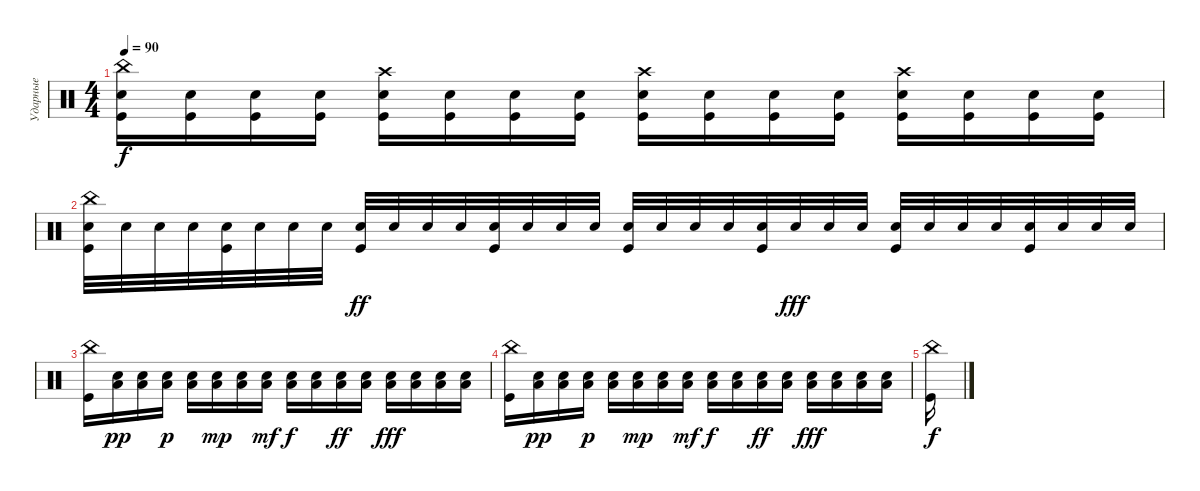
\track ("Ударные" "Ударные") {instrument percussion}
\staff {score}
\articulation defaults
\ts (4 4)
\tempo 90
\clef neutral
\ks c
("China (hit)" "Snare (hit) 2" "Kick (hit)").16{dy f} ("Snare (hit) 2" "Kick (hit)").16 ("Snare (hit) 2" "Kick (hit)").16 ("Snare (hit) 2" "Kick (hit)").16 ("Crash high (hit)" "Snare (hit) 2" "Kick (hit)").16 ("Snare (hit) 2" "Kick (hit)").16 ("Snare (hit) 2" "Kick (hit)").16 ("Snare (hit) 2" "Kick (hit)").16 ("Crash high (hit)" "Snare (hit) 2" "Kick (hit)").16 ("Snare (hit) 2" "Kick (hit)").16 ("Snare (hit) 2" "Kick (hit)").16 ("Snare (hit) 2" "Kick (hit)").16 ("Crash high (hit)" "Snare (hit) 2" "Kick (hit)").16 ("Snare (hit) 2" "Kick (hit)").16 ("Snare (hit) 2" "Kick (hit)").16 ("Snare (hit) 2" "Kick (hit)").16 |
("China (hit)" "Electric Snare (hit)" "Kick (hit)").32 "Electric Snare (hit)".32 "Electric Snare (hit)".32 "Electric Snare (hit)".32 ("Electric Snare (hit)" "Kick (hit)").32 "Electric Snare (hit)".32 "Electric Snare (hit)".32 "Electric Snare (hit)".32 ("Electric Snare (hit)" "Kick (hit)").32{dy ff} "Electric Snare (hit)".32 "Electric Snare (hit)".32 "Electric Snare (hit)".32 ("Electric Snare (hit)" "Kick (hit)").32 "Electric Snare (hit)".32 "Electric Snare (hit)".32 "Electric Snare (hit)".32 ("Electric Snare (hit)" "Kick (hit)").32 "Electric Snare (hit)".32 "Electric Snare (hit)".32 "Electric Snare (hit)".32 ("Electric Snare (hit)" "Kick (hit)").32 "Electric Snare (hit)".32{dy fff} "Electric Snare (hit)".32 "Electric Snare (hit)".32 ("Electric Snare (hit)" "Kick (hit)").32 "Electric Snare (hit)".32 "Electric Snare (hit)".32 "Electric Snare (hit)".32 ("Electric Snare (hit)" "Kick (hit)").32 "Electric Snare (hit)".32 "Electric Snare (hit)".32 "Electric Snare (hit)".32 |
("China (hit)" "Kick (hit)").16 ("Electric Snare (hit)" "Low Floor Tom (hit)").16{dy pp} ("Electric Snare (hit)" "Low Floor Tom (hit)").16 ("Electric Snare (hit)" "Low Floor Tom (hit)").16{dy p} ("Electric Snare (hit)" "Low Floor Tom (hit)").16 ("Electric Snare (hit)" "Low Floor Tom (hit)").16{dy mp} ("Electric Snare (hit)" "Low Floor Tom (hit)").16 ("Electric Snare (hit)" "Low Floor Tom (hit)").16{dy mf} ("Electric Snare (hit)" "Low Floor Tom (hit)").16{dy f} ("Electric Snare (hit)" "Low Floor Tom (hit)").16 ("Electric Snare (hit)" "Low Floor Tom (hit)").16{dy ff} ("Electric Snare (hit)" "Low Floor Tom (hit)").16 ("Electric Snare (hit)" "Low Floor Tom (hit)").16{dy fff} ("Electric Snare (hit)" "Low Floor Tom (hit)").16 ("Electric Snare (hit)" "Low Floor Tom (hit)").16 ("Electric Snare (hit)" "Low Floor Tom (hit)").16 |
("China (hit)" "Kick (hit)").16 ("Electric Snare (hit)" "Low Floor Tom (hit)").16{dy pp} ("Electric Snare (hit)" "Low Floor Tom (hit)").16 ("Electric Snare (hit)" "Low Floor Tom (hit)").16{dy p} ("Electric Snare (hit)" "Low Floor Tom (hit)").16 ("Electric Snare (hit)" "Low Floor Tom (hit)").16{dy mp} ("Electric Snare (hit)" "Low Floor Tom (hit)").16 ("Electric Snare (hit)" "Low Floor Tom (hit)").16{dy mf} ("Electric Snare (hit)" "Low Floor Tom (hit)").16{dy f} ("Electric Snare (hit)" "Low Floor Tom (hit)").16 ("Electric Snare (hit)" "Low Floor Tom (hit)").16{dy ff} ("Electric Snare (hit)" "Low Floor Tom (hit)").16 ("Electric Snare (hit)" "Low Floor Tom (hit)").16{dy fff} ("Electric Snare (hit)" "Low Floor Tom (hit)").16 ("Electric Snare (hit)" "Low Floor Tom (hit)").16 ("Electric Snare (hit)" "Low Floor Tom (hit)").16 |
("China (hit)" "Kick (hit)").16{dy f}
